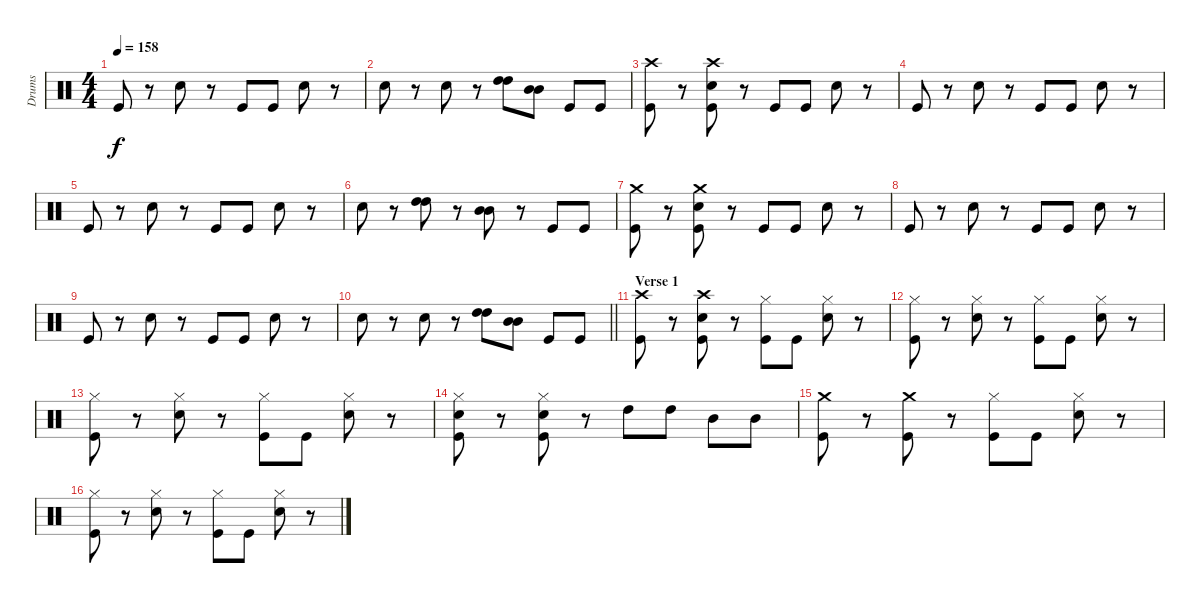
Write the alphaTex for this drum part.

\track ("Drums" "Drums") {instrument percussion}
\staff {score}
\articulation defaults
\ts (4 4)
\tempo 158
\clef neutral
\ks c "Kick (hit)".8{dy f}
r.8 "Snare (hit) 2".8 r.8 "Kick (hit)".8 "Kick (hit)".8 "Snare (hit) 2".8 r.8 |
"Snare (hit) 2".8 r.8 "Snare (hit) 2".8 r.8 ("High Tom (hit)" "High Tom (hit)").8 ("Mid Tom (hit)" "Mid Tom (hit)").8 "Kick (hit)".8 "Kick (hit)".8 |
("Crash high (hit)" "Kick (hit)").8 r.8 ("Crash high (hit)" "Snare (hit) 2" "Kick (hit)").8 r.8 "Kick (hit)".8 "Kick (hit)".8 "Snare (hit) 2".8 r.8 |
"Kick (hit)".8 r.8 "Snare (hit) 2".8 r.8 "Kick (hit)".8 "Kick (hit)".8 "Snare (hit) 2".8 r.8 |
"Kick (hit)".8 r.8 "Snare (hit) 2".8 r.8 "Kick (hit)".8 "Kick (hit)".8 "Snare (hit) 2".8 r.8 |
"Snare (hit) 2".8 r.8 ("High Tom (hit)" "High Tom (hit)").8 r.8 ("Mid Tom (hit)" "Mid Tom (hit)").8 r.8 "Kick (hit)".8 "Kick (hit)".8 |
("Crash medium (hit)" "Kick (hit)").8 r.8 ("Crash medium (hit)" "Snare (hit) 2" "Kick (hit)").8 r.8 "Kick (hit)".8 "Kick (hit)".8 "Snare (hit) 2".8 r.8 |
"Kick (hit)".8 r.8 "Snare (hit) 2".8 r.8 "Kick (hit)".8 "Kick (hit)".8 "Snare (hit) 2".8 r.8 |
"Kick (hit)".8 r.8 "Snare (hit) 2".8 r.8 "Kick (hit)".8 "Kick (hit)".8 "Snare (hit) 2".8 r.8 |
\barLineRight lightlight "Snare (hit) 2".8
r.8 "Snare (hit) 2".8 r.8 ("High Tom (hit)" "High Tom (hit)").8 ("Mid Tom (hit)" "Mid Tom (hit)").8 "Kick (hit)".8 "Kick (hit)".8 |
\section ("" "Verse 1")
("Crash high (hit)" "Kick (hit)").8 r.8 ("Crash high (hit)" "Snare (hit) 2" "Kick (hit)").8 r.8 ("Hi-Hat (closed)" "Kick (hit)").8 "Kick (hit)".8 ("Hi-Hat (closed)" "Snare (hit) 2").8 r.8 |
("Hi-Hat (closed)" "Kick (hit)").8 r.8 ("Hi-Hat (closed)" "Snare (hit) 2").8 r.8 ("Hi-Hat (closed)" "Kick (hit)").8 "Kick (hit)".8 ("Hi-Hat (closed)" "Snare (hit) 2").8 r.8 |
("Hi-Hat (closed)" "Kick (hit)").8 r.8 ("Hi-Hat (closed)" "Snare (hit) 2").8 r.8 ("Hi-Hat (closed)" "Kick (hit)").8 "Kick (hit)".8 ("Hi-Hat (closed)" "Snare (hit) 2").8 r.8 |
("Hi-Hat (closed)" "Snare (hit) 2" "Kick (hit)").8 r.8 ("Hi-Hat (closed)" "Snare (hit) 2" "Kick (hit)").8 r.8 "High Tom (hit)".8 "High Tom (hit)".8 "Mid Tom (hit)".8 "Mid Tom (hit)".8 |
("Crash medium (hit)" "Kick (hit)").8 r.8 ("Crash medium (hit)" "Kick (hit)").8 r.8 ("Hi-Hat (closed)" "Kick (hit)").8 "Kick (hit)".8 ("Hi-Hat (closed)" "Snare (hit) 2").8 r.8 |
("Hi-Hat (closed)" "Kick (hit)").8 r.8 ("Hi-Hat (closed)" "Snare (hit) 2").8 r.8 ("Hi-Hat (closed)" "Kick (hit)").8 "Kick (hit)".8 ("Hi-Hat (closed)" "Snare (hit) 2").8 r.8
